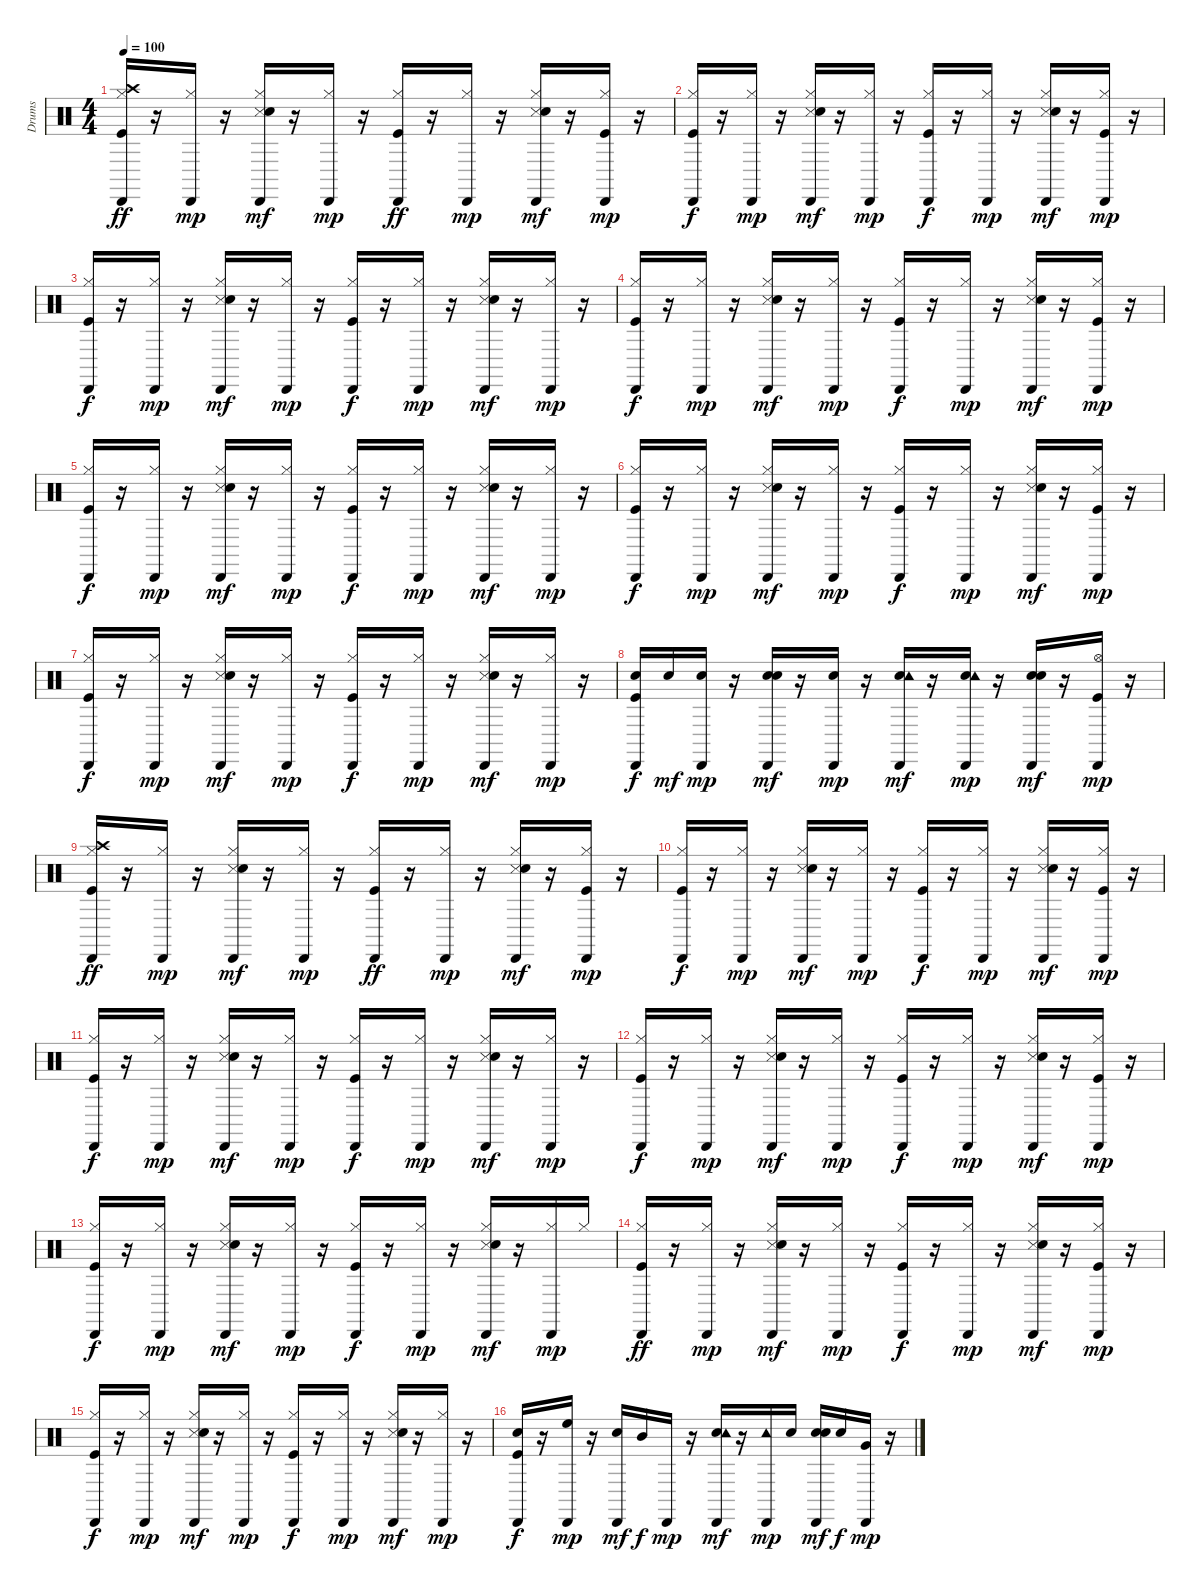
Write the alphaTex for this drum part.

\track ("Drums" "Drums") {instrument percussion}
\staff {score}
\articulation defaults
\ts (4 4)
\tempo 100
\clef neutral
\ks c
("Kick (hit)" "Hi-Hat (closed)" "Crash high (hit)" "Cabasa (hit)").16{dy ff} r.16 ("Hi-Hat (closed)" "Cabasa (hit)").16{dy mp} r.16 ("Hi-Hat (closed)" "Snare (side stick) 3" "Hand Clap (hit)" "Cabasa (hit)").16{dy mf} r.16 ("Hi-Hat (closed)" "Cabasa (hit)").16{dy mp} r.16 ("Kick (hit)" "Hi-Hat (closed)" "Cabasa (hit)").16{dy ff} r.16 ("Hi-Hat (closed)" "Cabasa (hit)").16{dy mp} r.16 ("Hi-Hat (closed)" "Snare (side stick) 3" "Hand Clap (hit)" "Cabasa (hit)").16{dy mf} r.16 ("Kick (hit)" "Hi-Hat (closed)" "Cabasa (hit)").16{dy mp} r.16 |
("Kick (hit)" "Hi-Hat (closed)" "Cabasa (hit)").16{dy f} r.16 ("Hi-Hat (closed)" "Cabasa (hit)").16{dy mp} r.16 ("Hi-Hat (closed)" "Snare (side stick) 3" "Hand Clap (hit)" "Cabasa (hit)").16{dy mf} r.16 ("Hi-Hat (closed)" "Cabasa (hit)").16{dy mp} r.16 ("Kick (hit)" "Hi-Hat (closed)" "Cabasa (hit)").16{dy f} r.16 ("Hi-Hat (closed)" "Cabasa (hit)").16{dy mp} r.16 ("Hi-Hat (closed)" "Snare (side stick) 3" "Hand Clap (hit)" "Cabasa (hit)").16{dy mf} r.16 ("Kick (hit)" "Hi-Hat (closed)" "Cabasa (hit)").16{dy mp} r.16 |
("Kick (hit)" "Hi-Hat (closed)" "Cabasa (hit)").16{dy f} r.16 ("Hi-Hat (closed)" "Cabasa (hit)").16{dy mp} r.16 ("Hi-Hat (closed)" "Snare (side stick) 3" "Hand Clap (hit)" "Cabasa (hit)").16{dy mf} r.16 ("Hi-Hat (closed)" "Cabasa (hit)").16{dy mp} r.16 ("Kick (hit)" "Hi-Hat (closed)" "Cabasa (hit)").16{dy f} r.16 ("Hi-Hat (closed)" "Cabasa (hit)").16{dy mp} r.16 ("Hi-Hat (closed)" "Snare (side stick) 3" "Hand Clap (hit)" "Cabasa (hit)").16{dy mf} r.16 ("Hi-Hat (closed)" "Cabasa (hit)").16{dy mp} r.16 |
("Kick (hit)" "Hi-Hat (closed)" "Cabasa (hit)").16{dy f} r.16 ("Hi-Hat (closed)" "Cabasa (hit)").16{dy mp} r.16 ("Hi-Hat (closed)" "Snare (side stick) 3" "Hand Clap (hit)" "Cabasa (hit)").16{dy mf} r.16 ("Hi-Hat (closed)" "Cabasa (hit)").16{dy mp} r.16 ("Kick (hit)" "Hi-Hat (closed)" "Cabasa (hit)").16{dy f} r.16 ("Hi-Hat (closed)" "Cabasa (hit)").16{dy mp} r.16 ("Hi-Hat (closed)" "Snare (side stick) 3" "Hand Clap (hit)" "Cabasa (hit)").16{dy mf} r.16 ("Kick (hit)" "Hi-Hat (closed)" "Cabasa (hit)").16{dy mp} r.16 |
("Kick (hit)" "Hi-Hat (closed)" "Cabasa (hit)").16{dy f} r.16 ("Hi-Hat (closed)" "Cabasa (hit)").16{dy mp} r.16 ("Hi-Hat (closed)" "Snare (side stick) 3" "Hand Clap (hit)" "Cabasa (hit)").16{dy mf} r.16 ("Hi-Hat (closed)" "Cabasa (hit)").16{dy mp} r.16 ("Kick (hit)" "Hi-Hat (closed)" "Cabasa (hit)").16{dy f} r.16 ("Hi-Hat (closed)" "Cabasa (hit)").16{dy mp} r.16 ("Hi-Hat (closed)" "Snare (side stick) 3" "Hand Clap (hit)" "Cabasa (hit)").16{dy mf} r.16 ("Hi-Hat (closed)" "Cabasa (hit)").16{dy mp} r.16 |
("Kick (hit)" "Hi-Hat (closed)" "Cabasa (hit)").16{dy f} r.16 ("Hi-Hat (closed)" "Cabasa (hit)").16{dy mp} r.16 ("Hi-Hat (closed)" "Snare (side stick) 3" "Hand Clap (hit)" "Cabasa (hit)").16{dy mf} r.16 ("Hi-Hat (closed)" "Cabasa (hit)").16{dy mp} r.16 ("Kick (hit)" "Hi-Hat (closed)" "Cabasa (hit)").16{dy f} r.16 ("Hi-Hat (closed)" "Cabasa (hit)").16{dy mp} r.16 ("Hi-Hat (closed)" "Snare (side stick) 3" "Hand Clap (hit)" "Cabasa (hit)").16{dy mf} r.16 ("Kick (hit)" "Hi-Hat (closed)" "Cabasa (hit)").16{dy mp} r.16 |
("Kick (hit)" "Hi-Hat (closed)" "Cabasa (hit)").16{dy f} r.16 ("Hi-Hat (closed)" "Cabasa (hit)").16{dy mp} r.16 ("Hi-Hat (closed)" "Snare (side stick) 3" "Hand Clap (hit)" "Cabasa (hit)").16{dy mf} r.16 ("Hi-Hat (closed)" "Cabasa (hit)").16{dy mp} r.16 ("Kick (hit)" "Hi-Hat (closed)" "Cabasa (hit)").16{dy f} r.16 ("Hi-Hat (closed)" "Cabasa (hit)").16{dy mp} r.16 ("Hi-Hat (closed)" "Snare (side stick) 3" "Hand Clap (hit)" "Cabasa (hit)").16{dy mf} r.16 ("Hi-Hat (closed)" "Cabasa (hit)").16{dy mp} r.16 |
("Kick (hit)" "Snare (hit) 2" "Cabasa (hit)").16{dy f} "Snare (hit) 2".16{dy mf} ("Snare (hit) 2" "Cabasa (hit)").16{dy mp} r.16 ("Snare (hit) 2" "Hand Clap (hit)" "Cabasa (hit)").16{dy mf} r.16 ("Snare (hit) 2" "Cabasa (hit)").16{dy mp} r.16 ("Snare (hit) 2" "Tambourine (hit)" "Cabasa (hit)").16{dy mf} r.16 ("Snare (hit) 2" "Tambourine (hit)" "Cabasa (hit)").16{dy mp} r.16 ("Snare (hit) 2" "Hand Clap (hit)" "Cabasa (hit)").16{dy mf} r.16 ("Kick (hit)" "Hi-Hat (open)" "Cabasa (hit)").16{dy mp} r.16 |
("Kick (hit)" "Hi-Hat (closed)" "Crash high (hit)" "Cabasa (hit)").16{dy ff} r.16 ("Hi-Hat (closed)" "Cabasa (hit)").16{dy mp} r.16 ("Hi-Hat (closed)" "Snare (side stick) 3" "Hand Clap (hit)" "Cabasa (hit)").16{dy mf} r.16 ("Hi-Hat (closed)" "Cabasa (hit)").16{dy mp} r.16 ("Kick (hit)" "Hi-Hat (closed)" "Cabasa (hit)").16{dy ff} r.16 ("Hi-Hat (closed)" "Cabasa (hit)").16{dy mp} r.16 ("Hi-Hat (closed)" "Snare (side stick) 3" "Hand Clap (hit)" "Cabasa (hit)").16{dy mf} r.16 ("Kick (hit)" "Hi-Hat (closed)" "Cabasa (hit)").16{dy mp} r.16 |
("Kick (hit)" "Hi-Hat (closed)" "Cabasa (hit)").16{dy f} r.16 ("Hi-Hat (closed)" "Cabasa (hit)").16{dy mp} r.16 ("Hi-Hat (closed)" "Snare (side stick) 3" "Hand Clap (hit)" "Cabasa (hit)").16{dy mf} r.16 ("Hi-Hat (closed)" "Cabasa (hit)").16{dy mp} r.16 ("Kick (hit)" "Hi-Hat (closed)" "Cabasa (hit)").16{dy f} r.16 ("Hi-Hat (closed)" "Cabasa (hit)").16{dy mp} r.16 ("Hi-Hat (closed)" "Snare (side stick) 3" "Hand Clap (hit)" "Cabasa (hit)").16{dy mf} r.16 ("Kick (hit)" "Hi-Hat (closed)" "Cabasa (hit)").16{dy mp} r.16 |
("Kick (hit)" "Hi-Hat (closed)" "Cabasa (hit)").16{dy f} r.16 ("Hi-Hat (closed)" "Cabasa (hit)").16{dy mp} r.16 ("Hi-Hat (closed)" "Snare (side stick) 3" "Hand Clap (hit)" "Cabasa (hit)").16{dy mf} r.16 ("Hi-Hat (closed)" "Cabasa (hit)").16{dy mp} r.16 ("Kick (hit)" "Hi-Hat (closed)" "Cabasa (hit)").16{dy f} r.16 ("Hi-Hat (closed)" "Cabasa (hit)").16{dy mp} r.16 ("Hi-Hat (closed)" "Snare (side stick) 3" "Hand Clap (hit)" "Cabasa (hit)").16{dy mf} r.16 ("Hi-Hat (closed)" "Cabasa (hit)").16{dy mp} r.16 |
("Kick (hit)" "Hi-Hat (closed)" "Cabasa (hit)").16{dy f} r.16 ("Hi-Hat (closed)" "Cabasa (hit)").16{dy mp} r.16 ("Hi-Hat (closed)" "Snare (side stick) 3" "Hand Clap (hit)" "Cabasa (hit)").16{dy mf} r.16 ("Hi-Hat (closed)" "Cabasa (hit)").16{dy mp} r.16 ("Kick (hit)" "Hi-Hat (closed)" "Cabasa (hit)").16{dy f} r.16 ("Hi-Hat (closed)" "Cabasa (hit)").16{dy mp} r.16 ("Hi-Hat (closed)" "Snare (side stick) 3" "Hand Clap (hit)" "Cabasa (hit)").16{dy mf} r.16 ("Kick (hit)" "Hi-Hat (closed)" "Cabasa (hit)").16{dy mp} r.16 |
("Kick (hit)" "Hi-Hat (closed)" "Cabasa (hit)").16{dy f} r.16 ("Hi-Hat (closed)" "Cabasa (hit)").16{dy mp} r.16 ("Hi-Hat (closed)" "Snare (side stick) 3" "Hand Clap (hit)" "Cabasa (hit)").16{dy mf} r.16 ("Hi-Hat (closed)" "Cabasa (hit)").16{dy mp} r.16 ("Kick (hit)" "Hi-Hat (closed)" "Cabasa (hit)").16{dy f} r.16 ("Hi-Hat (closed)" "Cabasa (hit)").16{dy mp} r.16 ("Hi-Hat (closed)" "Snare (side stick) 3" "Hand Clap (hit)" "Cabasa (hit)").16{dy mf} r.16 ("Hi-Hat (closed)" "Cabasa (hit)").16{dy mp} "Hi-Hat (closed)".16 |
("Kick (hit)" "Hi-Hat (closed)" "Cabasa (hit)").16{dy ff} r.16 ("Hi-Hat (closed)" "Cabasa (hit)").16{dy mp} r.16 ("Hi-Hat (closed)" "Snare (side stick) 3" "Hand Clap (hit)" "Cabasa (hit)").16{dy mf} r.16 ("Hi-Hat (closed)" "Cabasa (hit)").16{dy mp} r.16 ("Kick (hit)" "Hi-Hat (closed)" "Cabasa (hit)").16{dy f} r.16 ("Hi-Hat (closed)" "Cabasa (hit)").16{dy mp} r.16 ("Hi-Hat (closed)" "Snare (side stick) 3" "Hand Clap (hit)" "Cabasa (hit)").16{dy mf} r.16 ("Kick (hit)" "Hi-Hat (closed)" "Cabasa (hit)").16{dy mp} r.16 |
("Kick (hit)" "Hi-Hat (closed)" "Cabasa (hit)").16{dy f} r.16 ("Hi-Hat (closed)" "Cabasa (hit)").16{dy mp} r.16 ("Hi-Hat (closed)" "Snare (side stick) 3" "Hand Clap (hit)" "Cabasa (hit)").16{dy mf} r.16 ("Hi-Hat (closed)" "Cabasa (hit)").16{dy mp} r.16 ("Kick (hit)" "Hi-Hat (closed)" "Cabasa (hit)").16{dy f} r.16 ("Hi-Hat (closed)" "Cabasa (hit)").16{dy mp} r.16 ("Hi-Hat (closed)" "Snare (side stick) 3" "Hand Clap (hit)" "Cabasa (hit)").16{dy mf} r.16 ("Hi-Hat (closed)" "Cabasa (hit)").16{dy mp} r.16 |
("Kick (hit)" "Snare (hit) 2" "Cabasa (hit)").16{dy f} r.16 ("High Floor Tom (hit)" "Cabasa (hit)").16{dy mp} r.16 ("Hand Clap (hit)" "Cabasa (hit)").16{dy mf} "Mid Tom (hit)".16{dy f} "Cabasa (hit)".16{dy mp} r.16 ("Snare (hit) 2" "Tambourine (hit)" "Cabasa (hit)").16{dy mf} r.16 ("Tambourine (hit)" "Cabasa (hit)").16{dy mp} "Snare (hit) 2".16 ("Snare (hit) 2" "Hand Clap (hit)" "Cabasa (hit)").16{dy mf} "Snare (hit) 2".16{dy f} ("Very Low Tom (hit)" "Cabasa (hit)").16{dy mp} r.16
